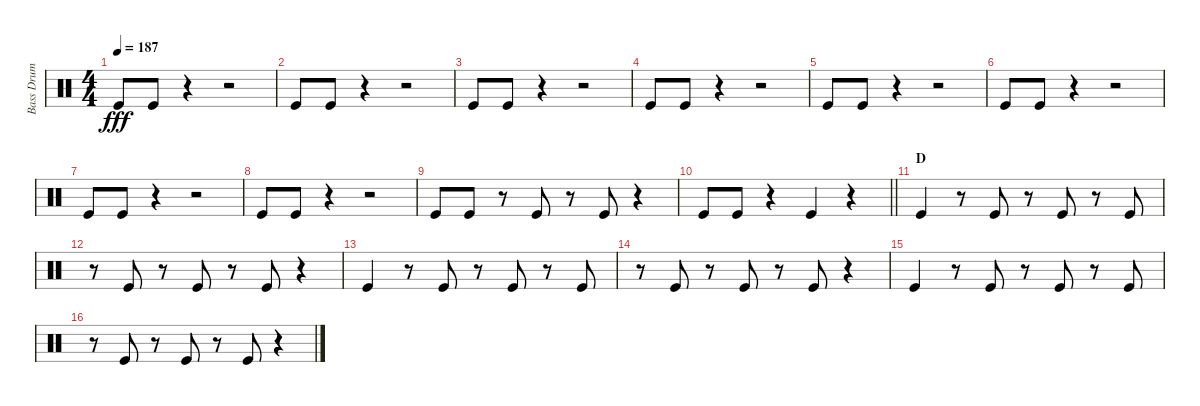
\track ("Bass Drum" "Bass Drum") {instrument percussion}
\staff {score}
\articulation defaults
\ts (4 4)
\tempo 187
\clef neutral
\ks c "Kick (hit)".8{dy fff} "Kick (hit)".8
r.4 r.2 |
"Kick (hit)".8 "Kick (hit)".8 r.4 r.2 |
"Kick (hit)".8 "Kick (hit)".8 r.4 r.2 |
"Kick (hit)".8 "Kick (hit)".8 r.4 r.2 |
"Kick (hit)".8 "Kick (hit)".8 r.4 r.2 |
"Kick (hit)".8 "Kick (hit)".8 r.4 r.2 |
"Kick (hit)".8 "Kick (hit)".8 r.4 r.2 |
"Kick (hit)".8 "Kick (hit)".8 r.4 r.2 |
"Kick (hit)".8 "Kick (hit)".8 r.8 "Kick (hit)".8 r.8 "Kick (hit)".8 r.4 |
\barLineRight lightlight "Kick (hit)".8 "Kick (hit)".8
r.4 "Kick (hit)".4 r.4 |
\section ("" "D")
"Kick (hit)".4 r.8 "Kick (hit)".8 r.8 "Kick (hit)".8 r.8 "Kick (hit)".8 |
r.8 "Kick (hit)".8 r.8 "Kick (hit)".8 r.8 "Kick (hit)".8 r.4 |
"Kick (hit)".4 r.8 "Kick (hit)".8 r.8 "Kick (hit)".8 r.8 "Kick (hit)".8 |
r.8 "Kick (hit)".8 r.8 "Kick (hit)".8 r.8 "Kick (hit)".8 r.4 |
"Kick (hit)".4 r.8 "Kick (hit)".8 r.8 "Kick (hit)".8 r.8 "Kick (hit)".8 |
r.8 "Kick (hit)".8 r.8 "Kick (hit)".8 r.8 "Kick (hit)".8 r.4
